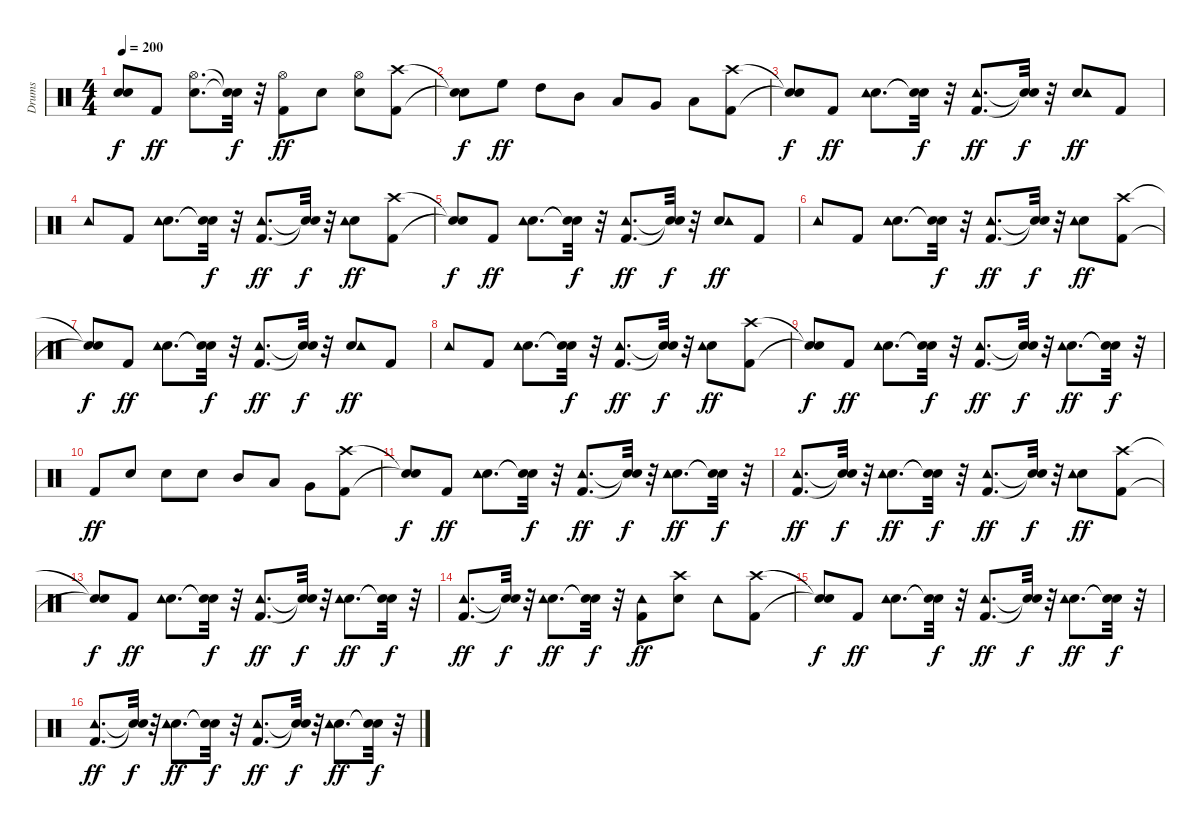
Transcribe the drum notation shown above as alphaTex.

\track ("Drums" "Drums") {instrument percussion}
\staff {score}
\articulation defaults
\ts (4 4)
\tempo 200
\clef neutral
\ks c
("Snare (hit)"{t} "Snare (hit)"{t}).8{dy f} "Kick (hit) 2".8{dy ff} ("Snare (hit) 2" "Hi-Hat (open)").8{d} ("Snare (hit)"{t} "Snare (hit)"{t}).32{dy f} r.32 ("Kick (hit) 2" "Hi-Hat (open)").8{dy ff} "Snare (hit) 2".8 ("Snare (hit) 2" "Hi-Hat (open)").8 ("Kick (hit) 2" "Crash high (hit)").8 |
("Snare (hit)"{t} "Snare (hit)"{t}).8{dy f} "High Floor Tom (hit)".8{dy ff} "High Tom (hit)".8 "Mid Tom (hit)".8 "Low Tom (hit)".8 "Very Low Tom (hit)".8 "Low Floor Tom (hit)".8 ("Kick (hit) 2" "Crash high (hit)").8 |
("Snare (hit)"{t} "Snare (hit)"{t}).8{dy f} "Kick (hit) 2".8{dy ff} ("Snare (hit) 2" "Tambourine (hit)").8{d} ("Snare (hit)"{t} "Snare (hit)"{t}).32{dy f} r.32 ("Kick (hit) 2" "Tambourine (hit)").8{d dy ff} ("Snare (hit)"{t} "Snare (hit)"{t}).32{dy f} r.32 ("Snare (hit) 2" "Tambourine (hit)").8{dy ff} "Kick (hit) 2".8 |
"Tambourine (hit)".8 "Kick (hit) 2".8 ("Snare (hit) 2" "Tambourine (hit)").8{d} ("Snare (hit)"{t} "Snare (hit)"{t}).32{dy f} r.32 ("Kick (hit) 2" "Tambourine (hit)").8{d dy ff} ("Snare (hit)"{t} "Snare (hit)"{t}).32{dy f} r.32 ("Snare (hit) 2" "Tambourine (hit)").8{dy ff} ("Kick (hit) 2" "Crash high (hit)").8 |
("Snare (hit)"{t} "Snare (hit)"{t}).8{dy f} "Kick (hit) 2".8{dy ff} ("Snare (hit) 2" "Tambourine (hit)").8{d} ("Snare (hit)"{t} "Snare (hit)"{t}).32{dy f} r.32 ("Kick (hit) 2" "Tambourine (hit)").8{d dy ff} ("Snare (hit)"{t} "Snare (hit)"{t}).32{dy f} r.32 ("Snare (hit) 2" "Tambourine (hit)").8{dy ff} "Kick (hit) 2".8 |
"Tambourine (hit)".8 "Kick (hit) 2".8 ("Snare (hit) 2" "Tambourine (hit)").8{d} ("Snare (hit)"{t} "Snare (hit)"{t}).32{dy f} r.32 ("Kick (hit) 2" "Tambourine (hit)").8{d dy ff} ("Snare (hit)"{t} "Snare (hit)"{t}).32{dy f} r.32 ("Snare (hit) 2" "Tambourine (hit)").8{dy ff} ("Kick (hit) 2" "Crash high (hit)").8 |
("Snare (hit)"{t} "Snare (hit)"{t}).8{dy f} "Kick (hit) 2".8{dy ff} ("Snare (hit) 2" "Tambourine (hit)").8{d} ("Snare (hit)"{t} "Snare (hit)"{t}).32{dy f} r.32 ("Kick (hit) 2" "Tambourine (hit)").8{d dy ff} ("Snare (hit)"{t} "Snare (hit)"{t}).32{dy f} r.32 ("Snare (hit) 2" "Tambourine (hit)").8{dy ff} "Kick (hit) 2".8 |
"Tambourine (hit)".8 "Kick (hit) 2".8 ("Snare (hit) 2" "Tambourine (hit)").8{d} ("Snare (hit)"{t} "Snare (hit)"{t}).32{dy f} r.32 ("Kick (hit) 2" "Tambourine (hit)").8{d dy ff} ("Snare (hit)"{t} "Snare (hit)"{t}).32{dy f} r.32 ("Snare (hit) 2" "Tambourine (hit)").8{dy ff} ("Kick (hit) 2" "Crash high (hit)").8 |
("Snare (hit)"{t} "Snare (hit)"{t}).8{dy f} "Kick (hit) 2".8{dy ff} ("Snare (hit) 2" "Tambourine (hit)").8{d} ("Snare (hit)"{t} "Snare (hit)"{t}).32{dy f} r.32 ("Kick (hit) 2" "Tambourine (hit)").8{d dy ff} ("Snare (hit)"{t} "Snare (hit)"{t}).32{dy f} r.32 ("Snare (hit) 2" "Tambourine (hit)").8{d dy ff} ("Snare (hit)"{t} "Snare (hit)"{t}).32{dy f} r.32 |
"Kick (hit) 2".8{dy ff} "Snare (hit) 2".8 "Snare (hit) 2".8 "Snare (hit) 2".8 "Mid Tom (hit)".8 "Low Tom (hit)".8 "Very Low Tom (hit)".8 ("Kick (hit) 2" "Crash high (hit)").8 |
("Snare (hit)"{t} "Snare (hit)"{t}).8{dy f} "Kick (hit) 2".8{dy ff} ("Snare (hit) 2" "Tambourine (hit)").8{d} ("Snare (hit)"{t} "Snare (hit)"{t}).32{dy f} r.32 ("Kick (hit) 2" "Tambourine (hit)").8{d dy ff} ("Snare (hit)"{t} "Snare (hit)"{t}).32{dy f} r.32 ("Snare (hit) 2" "Tambourine (hit)").8{d dy ff} ("Snare (hit)"{t} "Snare (hit)"{t}).32{dy f} r.32 |
("Kick (hit) 2" "Tambourine (hit)").8{d dy ff} ("Snare (hit)"{t} "Snare (hit)"{t}).32{dy f} r.32 ("Snare (hit) 2" "Tambourine (hit)").8{d dy ff} ("Snare (hit)"{t} "Snare (hit)"{t}).32{dy f} r.32 ("Kick (hit) 2" "Tambourine (hit)").8{d dy ff} ("Snare (hit)"{t} "Snare (hit)"{t}).32{dy f} r.32 ("Snare (hit) 2" "Tambourine (hit)").8{dy ff} ("Kick (hit) 2" "Crash high (hit)").8 |
("Snare (hit)"{t} "Snare (hit)"{t}).8{dy f} "Kick (hit) 2".8{dy ff} ("Snare (hit) 2" "Tambourine (hit)").8{d} ("Snare (hit)"{t} "Snare (hit)"{t}).32{dy f} r.32 ("Kick (hit) 2" "Tambourine (hit)").8{d dy ff} ("Snare (hit)"{t} "Snare (hit)"{t}).32{dy f} r.32 ("Snare (hit) 2" "Tambourine (hit)").8{d dy ff} ("Snare (hit)"{t} "Snare (hit)"{t}).32{dy f} r.32 |
("Kick (hit) 2" "Tambourine (hit)").8{d dy ff} ("Snare (hit)"{t} "Snare (hit)"{t}).32{dy f} r.32 ("Snare (hit) 2" "Tambourine (hit)").8{d dy ff} ("Snare (hit)"{t} "Snare (hit)"{t}).32{dy f} r.32 ("Kick (hit) 2" "Tambourine (hit)").8{dy ff} ("Snare (hit) 2" "Crash high (hit)").8 "Tambourine (hit)".8 ("Kick (hit) 2" "Crash high (hit)").8 |
("Snare (hit)"{t} "Snare (hit)"{t}).8{dy f} "Kick (hit) 2".8{dy ff} ("Snare (hit) 2" "Tambourine (hit)").8{d} ("Snare (hit)"{t} "Snare (hit)"{t}).32{dy f} r.32 ("Kick (hit) 2" "Tambourine (hit)").8{d dy ff} ("Snare (hit)"{t} "Snare (hit)"{t}).32{dy f} r.32 ("Snare (hit) 2" "Tambourine (hit)").8{d dy ff} ("Snare (hit)"{t} "Snare (hit)"{t}).32{dy f} r.32 |
("Kick (hit) 2" "Tambourine (hit)").8{d dy ff} ("Snare (hit)"{t} "Snare (hit)"{t}).32{dy f} r.32 ("Snare (hit) 2" "Tambourine (hit)").8{d dy ff} ("Snare (hit)"{t} "Snare (hit)"{t}).32{dy f} r.32 ("Kick (hit) 2" "Tambourine (hit)").8{d dy ff} ("Snare (hit)"{t} "Snare (hit)"{t}).32{dy f} r.32 ("Snare (hit) 2" "Tambourine (hit)").8{d dy ff} ("Snare (hit)"{t} "Snare (hit)"{t}).32{dy f} r.32
